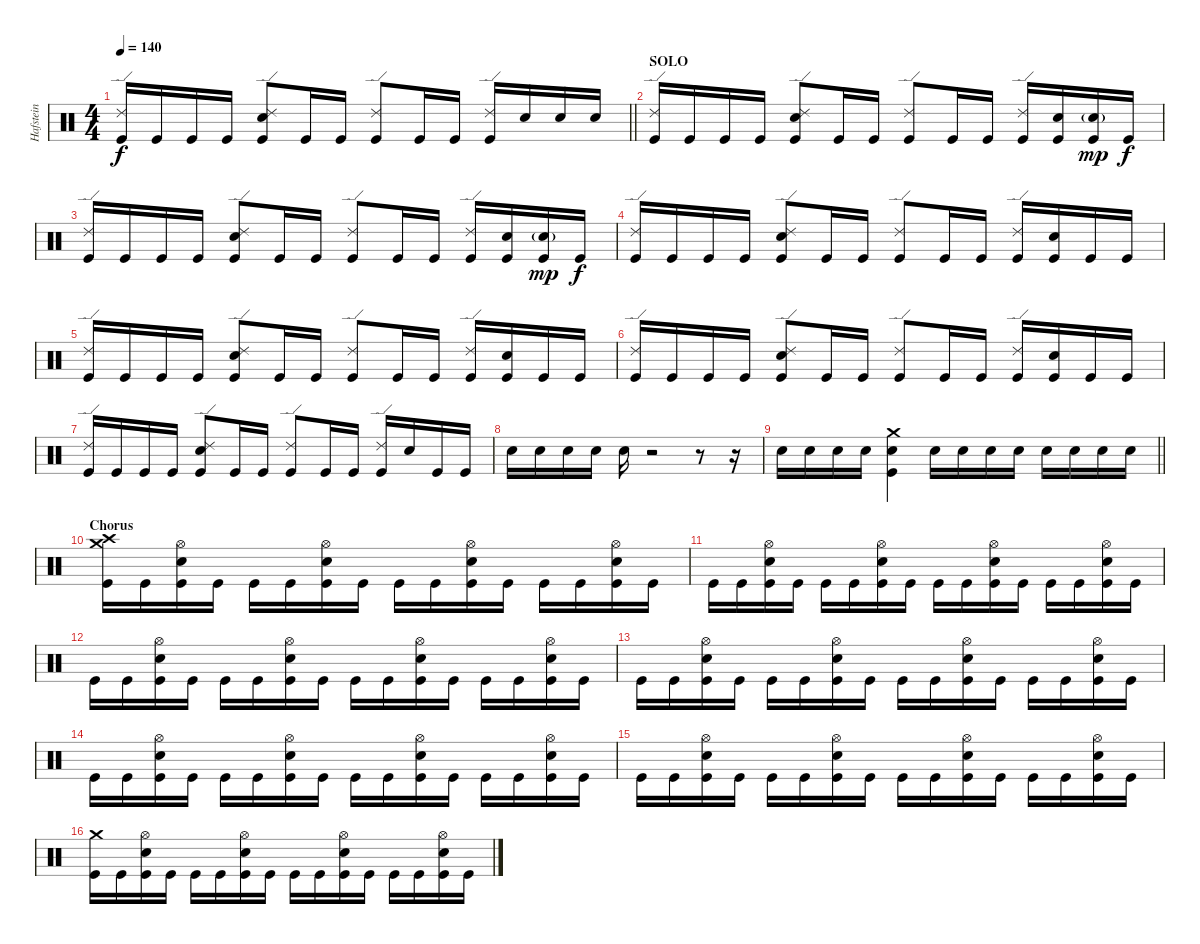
\track ("Hafstein" "Hafstein") {instrument percussion}
\staff {score}
\articulation defaults
\ts (4 4)
\tempo 140
\clef neutral
\barLineRight lightlight
\ks c
("Ride (edge) 2" "Kick (hit)").16{dy f} "Kick (hit)".16 "Kick (hit)".16 "Kick (hit)".16 ("Ride (edge) 2" "Electric Snare (hit)" "Kick (hit)").8 "Kick (hit)".16 "Kick (hit)".16 ("Ride (edge) 2" "Kick (hit)").8 "Kick (hit)".16 "Kick (hit)".16 ("Ride (edge) 2" "Kick (hit)").16 "Electric Snare (hit)".16 "Electric Snare (hit)".16 "Electric Snare (hit)".16 |
\section ("" "SOLO ")
("Ride (edge) 2" "Kick (hit)").16 "Kick (hit)".16 "Kick (hit)".16 "Kick (hit)".16 ("Ride (edge) 2" "Electric Snare (hit)" "Kick (hit)").8 "Kick (hit)".16 "Kick (hit)".16 ("Ride (edge) 2" "Kick (hit)").8 "Kick (hit)".16 "Kick (hit)".16 ("Ride (edge) 2" "Kick (hit)").16 ("Electric Snare (hit)" "Kick (hit)").16 ("Electric Snare (hit)"{g} "Kick (hit)").16{dy mp} "Kick (hit)".16{dy f} |
("Ride (edge) 2" "Kick (hit)").16 "Kick (hit)".16 "Kick (hit)".16 "Kick (hit)".16 ("Ride (edge) 2" "Electric Snare (hit)" "Kick (hit)").8 "Kick (hit)".16 "Kick (hit)".16 ("Ride (edge) 2" "Kick (hit)").8 "Kick (hit)".16 "Kick (hit)".16 ("Ride (edge) 2" "Kick (hit)").16 ("Electric Snare (hit)" "Kick (hit)").16 ("Electric Snare (hit)"{g} "Kick (hit)").16{dy mp} "Kick (hit)".16{dy f} |
("Ride (edge) 2" "Kick (hit)").16 "Kick (hit)".16 "Kick (hit)".16 "Kick (hit)".16 ("Ride (edge) 2" "Electric Snare (hit)" "Kick (hit)").8 "Kick (hit)".16 "Kick (hit)".16 ("Ride (edge) 2" "Kick (hit)").8 "Kick (hit)".16 "Kick (hit)".16 ("Ride (edge) 2" "Kick (hit)").16 ("Electric Snare (hit)" "Kick (hit)").16 "Kick (hit)".16 "Kick (hit)".16 |
("Ride (edge) 2" "Kick (hit)").16 "Kick (hit)".16 "Kick (hit)".16 "Kick (hit)".16 ("Ride (edge) 2" "Electric Snare (hit)" "Kick (hit)").8 "Kick (hit)".16 "Kick (hit)".16 ("Ride (edge) 2" "Kick (hit)").8 "Kick (hit)".16 "Kick (hit)".16 ("Ride (edge) 2" "Kick (hit)").16 ("Electric Snare (hit)" "Kick (hit)").16 "Kick (hit)".16 "Kick (hit)".16 |
("Ride (edge) 2" "Kick (hit)").16 "Kick (hit)".16 "Kick (hit)".16 "Kick (hit)".16 ("Ride (edge) 2" "Electric Snare (hit)" "Kick (hit)").8 "Kick (hit)".16 "Kick (hit)".16 ("Ride (edge) 2" "Kick (hit)").8 "Kick (hit)".16 "Kick (hit)".16 ("Ride (edge) 2" "Kick (hit)").16 ("Electric Snare (hit)" "Kick (hit)").16 "Kick (hit)".16 "Kick (hit)".16 |
("Ride (edge) 2" "Kick (hit)").16 "Kick (hit)".16 "Kick (hit)".16 "Kick (hit)".16 ("Ride (edge) 2" "Electric Snare (hit)" "Kick (hit)").8 "Kick (hit)".16 "Kick (hit)".16 ("Ride (edge) 2" "Kick (hit)").8 "Kick (hit)".16 "Kick (hit)".16 ("Ride (edge) 2" "Kick (hit)").16 "Electric Snare (hit)".16 "Kick (hit)".16 "Kick (hit)".16 |
"Electric Snare (hit)".16 "Electric Snare (hit)".16 "Electric Snare (hit)".16 "Electric Snare (hit)".16 "Electric Snare (hit)".16 r.2 r.8 r.16 |
\barLineRight lightlight "Electric Snare (hit)".16 "Electric Snare (hit)".16 "Electric Snare (hit)".16 "Electric Snare (hit)".16
("Crash medium (hit)" "Electric Snare (hit)" "Kick (hit)").4 "Electric Snare (hit)".16 "Electric Snare (hit)".16 "Electric Snare (hit)".16 "Electric Snare (hit)".16 "Electric Snare (hit)".16 "Electric Snare (hit)".16 "Electric Snare (hit)".16 "Electric Snare (hit)".16 |
\section ("" "Chorus")
("Crash medium (hit)" "Crash high (hit)" "Kick (hit)").16 "Kick (hit)".16 ("Hi-Hat (open)" "Electric Snare (hit)" "Kick (hit)").16 "Kick (hit)".16 "Kick (hit)".16 "Kick (hit)".16 ("Hi-Hat (open)" "Electric Snare (hit)" "Kick (hit)").16 "Kick (hit)".16 "Kick (hit)".16 "Kick (hit)".16 ("Hi-Hat (open)" "Electric Snare (hit)" "Kick (hit)").16 "Kick (hit)".16 "Kick (hit)".16 "Kick (hit)".16 ("Hi-Hat (open)" "Electric Snare (hit)" "Kick (hit)").16 "Kick (hit)".16 |
"Kick (hit)".16 "Kick (hit)".16 ("Hi-Hat (open)" "Electric Snare (hit)" "Kick (hit)").16 "Kick (hit)".16 "Kick (hit)".16 "Kick (hit)".16 ("Hi-Hat (open)" "Electric Snare (hit)" "Kick (hit)").16 "Kick (hit)".16 "Kick (hit)".16 "Kick (hit)".16 ("Hi-Hat (open)" "Electric Snare (hit)" "Kick (hit)").16 "Kick (hit)".16 "Kick (hit)".16 "Kick (hit)".16 ("Hi-Hat (open)" "Electric Snare (hit)" "Kick (hit)").16 "Kick (hit)".16 |
"Kick (hit)".16 "Kick (hit)".16 ("Hi-Hat (open)" "Electric Snare (hit)" "Kick (hit)").16 "Kick (hit)".16 "Kick (hit)".16 "Kick (hit)".16 ("Hi-Hat (open)" "Electric Snare (hit)" "Kick (hit)").16 "Kick (hit)".16 "Kick (hit)".16 "Kick (hit)".16 ("Hi-Hat (open)" "Electric Snare (hit)" "Kick (hit)").16 "Kick (hit)".16 "Kick (hit)".16 "Kick (hit)".16 ("Hi-Hat (open)" "Electric Snare (hit)" "Kick (hit)").16 "Kick (hit)".16 |
"Kick (hit)".16 "Kick (hit)".16 ("Hi-Hat (open)" "Electric Snare (hit)" "Kick (hit)").16 "Kick (hit)".16 "Kick (hit)".16 "Kick (hit)".16 ("Hi-Hat (open)" "Electric Snare (hit)" "Kick (hit)").16 "Kick (hit)".16 "Kick (hit)".16 "Kick (hit)".16 ("Hi-Hat (open)" "Electric Snare (hit)" "Kick (hit)").16 "Kick (hit)".16 "Kick (hit)".16 "Kick (hit)".16 ("Hi-Hat (open)" "Electric Snare (hit)" "Kick (hit)").16 "Kick (hit)".16 |
"Kick (hit)".16 "Kick (hit)".16 ("Hi-Hat (open)" "Electric Snare (hit)" "Kick (hit)").16 "Kick (hit)".16 "Kick (hit)".16 "Kick (hit)".16 ("Hi-Hat (open)" "Electric Snare (hit)" "Kick (hit)").16 "Kick (hit)".16 "Kick (hit)".16 "Kick (hit)".16 ("Hi-Hat (open)" "Electric Snare (hit)" "Kick (hit)").16 "Kick (hit)".16 "Kick (hit)".16 "Kick (hit)".16 ("Hi-Hat (open)" "Electric Snare (hit)" "Kick (hit)").16 "Kick (hit)".16 |
"Kick (hit)".16 "Kick (hit)".16 ("Hi-Hat (open)" "Electric Snare (hit)" "Kick (hit)").16 "Kick (hit)".16 "Kick (hit)".16 "Kick (hit)".16 ("Hi-Hat (open)" "Electric Snare (hit)" "Kick (hit)").16 "Kick (hit)".16 "Kick (hit)".16 "Kick (hit)".16 ("Hi-Hat (open)" "Electric Snare (hit)" "Kick (hit)").16 "Kick (hit)".16 "Kick (hit)".16 "Kick (hit)".16 ("Hi-Hat (open)" "Electric Snare (hit)" "Kick (hit)").16 "Kick (hit)".16 |
("Crash medium (hit)" "Kick (hit)").16 "Kick (hit)".16 ("Hi-Hat (open)" "Electric Snare (hit)" "Kick (hit)").16 "Kick (hit)".16 "Kick (hit)".16 "Kick (hit)".16 ("Hi-Hat (open)" "Electric Snare (hit)" "Kick (hit)").16 "Kick (hit)".16 "Kick (hit)".16 "Kick (hit)".16 ("Hi-Hat (open)" "Electric Snare (hit)" "Kick (hit)").16 "Kick (hit)".16 "Kick (hit)".16 "Kick (hit)".16 ("Hi-Hat (open)" "Electric Snare (hit)" "Kick (hit)").16 "Kick (hit)".16
